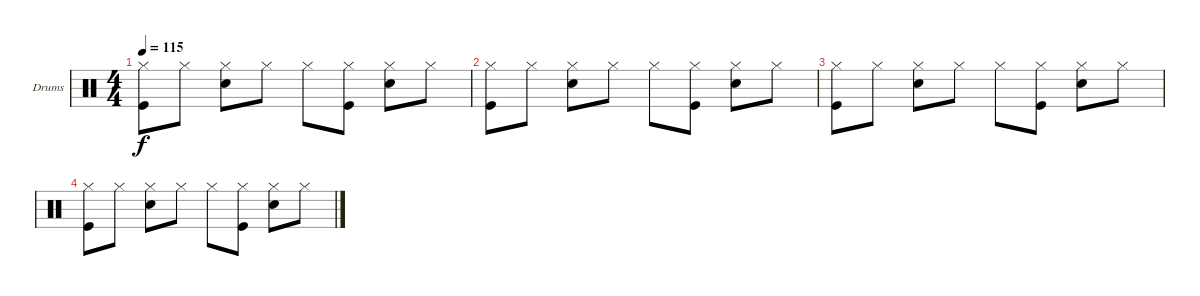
\defaultSystemsLayout 4
\bracketExtendMode groupsimilarinstruments
\firstSystemTrackNameOrientation horizontal
\otherSystemsTrackNameOrientation horizontal
\track ("Drumkit" "Drums") {instrument percussion}
\staff {score}
\articulation defaults
\ts (4 4)
\tempo 115
\clef neutral
\ks c
("Kick (hit)" "Hi-Hat (closed)").8{dy f} "Hi-Hat (closed)".8 ("Hi-Hat (closed)" "Snare (hit) 2").8 "Hi-Hat (closed)".8 "Hi-Hat (closed)".8 ("Hi-Hat (closed)" "Kick (hit)").8 ("Hi-Hat (closed)" "Snare (hit) 2").8 "Hi-Hat (closed)".8 |
("Kick (hit)" "Hi-Hat (closed)").8 "Hi-Hat (closed)".8 ("Hi-Hat (closed)" "Snare (hit) 2").8 "Hi-Hat (closed)".8 "Hi-Hat (closed)".8 ("Hi-Hat (closed)" "Kick (hit)").8 ("Hi-Hat (closed)" "Snare (hit) 2").8 "Hi-Hat (closed)".8 |
("Kick (hit)" "Hi-Hat (closed)").8 "Hi-Hat (closed)".8 ("Hi-Hat (closed)" "Snare (hit) 2").8 "Hi-Hat (closed)".8 "Hi-Hat (closed)".8 ("Hi-Hat (closed)" "Kick (hit)").8 ("Hi-Hat (closed)" "Snare (hit) 2").8 "Hi-Hat (closed)".8 |
("Kick (hit)" "Hi-Hat (closed)").8 "Hi-Hat (closed)".8 ("Hi-Hat (closed)" "Snare (hit) 2").8 "Hi-Hat (closed)".8 "Hi-Hat (closed)".8 ("Hi-Hat (closed)" "Kick (hit)").8 ("Hi-Hat (closed)" "Snare (hit) 2").8 "Hi-Hat (closed)".8
